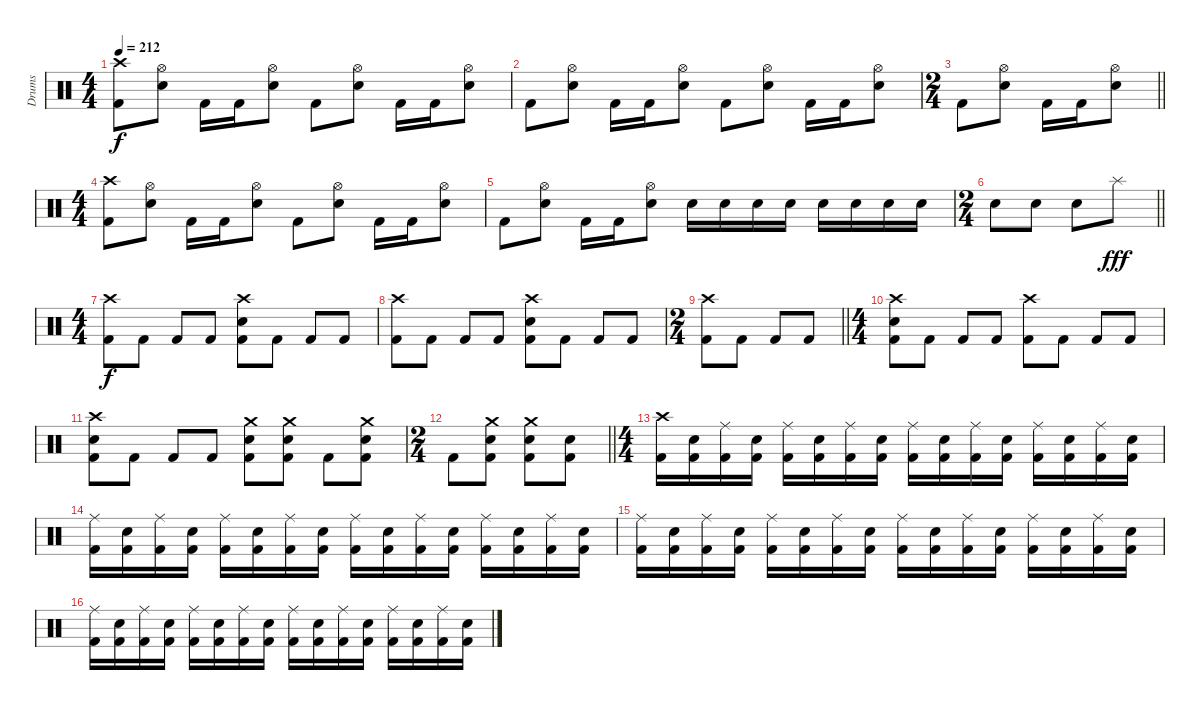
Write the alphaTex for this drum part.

\track ("Drums" "Drums") {instrument percussion}
\staff {score}
\articulation defaults
\ts (4 4)
\tempo 212
\clef neutral
\ks c
("Crash high (hit)" "Kick (hit) 2").8{dy f} ("Hi-Hat (open)" "Electric Snare (hit)").8 "Kick (hit) 2".16 "Kick (hit) 2".16 ("Hi-Hat (open)" "Electric Snare (hit)").8 "Kick (hit) 2".8 ("Hi-Hat (open)" "Electric Snare (hit)").8 "Kick (hit) 2".16 "Kick (hit) 2".16 ("Hi-Hat (open)" "Electric Snare (hit)").8 |
"Kick (hit) 2".8 ("Hi-Hat (open)" "Electric Snare (hit)").8 "Kick (hit) 2".16 "Kick (hit) 2".16 ("Hi-Hat (open)" "Electric Snare (hit)").8 "Kick (hit) 2".8 ("Hi-Hat (open)" "Electric Snare (hit)").8 "Kick (hit) 2".16 "Kick (hit) 2".16 ("Hi-Hat (open)" "Electric Snare (hit)").8 |
\ts (2 4)
\barLineRight lightlight "Kick (hit) 2".8
("Hi-Hat (open)" "Electric Snare (hit)").8 "Kick (hit) 2".16 "Kick (hit) 2".16 ("Hi-Hat (open)" "Electric Snare (hit)").8 |
\ts (4 4)
("Crash high (hit)" "Kick (hit) 2").8 ("Hi-Hat (open)" "Electric Snare (hit)").8 "Kick (hit) 2".16 "Kick (hit) 2".16 ("Hi-Hat (open)" "Electric Snare (hit)").8 "Kick (hit) 2".8 ("Hi-Hat (open)" "Electric Snare (hit)").8 "Kick (hit) 2".16 "Kick (hit) 2".16 ("Hi-Hat (open)" "Electric Snare (hit)").8 |
"Kick (hit) 2".8 ("Hi-Hat (open)" "Electric Snare (hit)").8 "Kick (hit) 2".16 "Kick (hit) 2".16 ("Hi-Hat (open)" "Electric Snare (hit)").8 "Electric Snare (hit)".16 "Electric Snare (hit)".16 "Electric Snare (hit)".16 "Electric Snare (hit)".16 "Electric Snare (hit)".16 "Electric Snare (hit)".16 "Electric Snare (hit)".16 "Electric Snare (hit)".16 |
\ts (2 4)
\barLineRight lightlight "Electric Snare (hit)".8 "Electric Snare (hit)".8 "Electric Snare (hit)".8 "Splash (hit)".8{dy fff}
|
\ts (4 4)
("Crash high (hit)" "Kick (hit) 2").8{dy f} "Kick (hit) 2".8 "Kick (hit) 2".8 "Kick (hit) 2".8 ("Crash high (hit)" "Electric Snare (hit)" "Kick (hit) 2").8 "Kick (hit) 2".8 "Kick (hit) 2".8 "Kick (hit) 2".8 |
("Crash high (hit)" "Kick (hit) 2").8 "Kick (hit) 2".8 "Kick (hit) 2".8 "Kick (hit) 2".8 ("Crash high (hit)" "Electric Snare (hit)" "Kick (hit) 2").8 "Kick (hit) 2".8 "Kick (hit) 2".8 "Kick (hit) 2".8 |
\ts (2 4)
\barLineRight lightlight
("Crash high (hit)" "Kick (hit) 2").8 "Kick (hit) 2".8 "Kick (hit) 2".8 "Kick (hit) 2".8 |
\ts (4 4)
("Crash high (hit)" "Electric Snare (hit)" "Kick (hit) 2").8 "Kick (hit) 2".8 "Kick (hit) 2".8 "Kick (hit) 2".8 ("Crash high (hit)" "Kick (hit) 2").8 "Kick (hit) 2".8 "Kick (hit) 2".8 "Kick (hit) 2".8 |
("Crash high (hit)" "Electric Snare (hit)" "Kick (hit) 2").8 "Kick (hit) 2".8 "Kick (hit) 2".8 "Kick (hit) 2".8 ("Crash medium (hit)" "Electric Snare (hit)" "Kick (hit) 2").8 ("Crash medium (hit)" "Electric Snare (hit)" "Kick (hit) 2").8 "Kick (hit) 2".8 ("Crash medium (hit)" "Electric Snare (hit)" "Kick (hit) 2").8 |
\ts (2 4)
\barLineRight lightlight "Kick (hit) 2".8
("Crash medium (hit)" "Electric Snare (hit)" "Kick (hit) 2").8 ("Crash medium (hit)" "Electric Snare (hit)" "Kick (hit) 2").8 ("Electric Snare (hit)" "Kick (hit) 2").8 |
\ts (4 4)
("Crash high (hit)" "Kick (hit) 2").16 ("Electric Snare (hit)" "Kick (hit) 2").16 ("Ride (middle)" "Kick (hit) 2").16 ("Electric Snare (hit)" "Kick (hit) 2").16 ("Ride (middle)" "Kick (hit) 2").16 ("Electric Snare (hit)" "Kick (hit) 2").16 ("Ride (middle)" "Kick (hit) 2").16 ("Electric Snare (hit)" "Kick (hit) 2").16 ("Ride (middle)" "Kick (hit) 2").16 ("Electric Snare (hit)" "Kick (hit) 2").16 ("Ride (middle)" "Kick (hit) 2").16 ("Electric Snare (hit)" "Kick (hit) 2").16 ("Ride (middle)" "Kick (hit) 2").16 ("Electric Snare (hit)" "Kick (hit) 2").16 ("Ride (middle)" "Kick (hit) 2").16 ("Electric Snare (hit)" "Kick (hit) 2").16 |
("Ride (middle)" "Kick (hit) 2").16 ("Electric Snare (hit)" "Kick (hit) 2").16 ("Ride (middle)" "Kick (hit) 2").16 ("Electric Snare (hit)" "Kick (hit) 2").16 ("Ride (middle)" "Kick (hit) 2").16 ("Electric Snare (hit)" "Kick (hit) 2").16 ("Ride (middle)" "Kick (hit) 2").16 ("Electric Snare (hit)" "Kick (hit) 2").16 ("Ride (middle)" "Kick (hit) 2").16 ("Electric Snare (hit)" "Kick (hit) 2").16 ("Ride (middle)" "Kick (hit) 2").16 ("Electric Snare (hit)" "Kick (hit) 2").16 ("Ride (middle)" "Kick (hit) 2").16 ("Electric Snare (hit)" "Kick (hit) 2").16 ("Ride (middle)" "Kick (hit) 2").16 ("Electric Snare (hit)" "Kick (hit) 2").16 |
("Ride (middle)" "Kick (hit) 2").16 ("Electric Snare (hit)" "Kick (hit) 2").16 ("Ride (middle)" "Kick (hit) 2").16 ("Electric Snare (hit)" "Kick (hit) 2").16 ("Ride (middle)" "Kick (hit) 2").16 ("Electric Snare (hit)" "Kick (hit) 2").16 ("Ride (middle)" "Kick (hit) 2").16 ("Electric Snare (hit)" "Kick (hit) 2").16 ("Ride (middle)" "Kick (hit) 2").16 ("Electric Snare (hit)" "Kick (hit) 2").16 ("Ride (middle)" "Kick (hit) 2").16 ("Electric Snare (hit)" "Kick (hit) 2").16 ("Ride (middle)" "Kick (hit) 2").16 ("Electric Snare (hit)" "Kick (hit) 2").16 ("Ride (middle)" "Kick (hit) 2").16 ("Electric Snare (hit)" "Kick (hit) 2").16 |
("Ride (middle)" "Kick (hit) 2").16 ("Electric Snare (hit)" "Kick (hit) 2").16 ("Ride (middle)" "Kick (hit) 2").16 ("Electric Snare (hit)" "Kick (hit) 2").16 ("Ride (middle)" "Kick (hit) 2").16 ("Electric Snare (hit)" "Kick (hit) 2").16 ("Ride (middle)" "Kick (hit) 2").16 ("Electric Snare (hit)" "Kick (hit) 2").16 ("Ride (middle)" "Kick (hit) 2").16 ("Electric Snare (hit)" "Kick (hit) 2").16 ("Ride (middle)" "Kick (hit) 2").16 ("Electric Snare (hit)" "Kick (hit) 2").16 ("Ride (middle)" "Kick (hit) 2").16 ("Electric Snare (hit)" "Kick (hit) 2").16 ("Ride (middle)" "Kick (hit) 2").16 ("Electric Snare (hit)" "Kick (hit) 2").16
